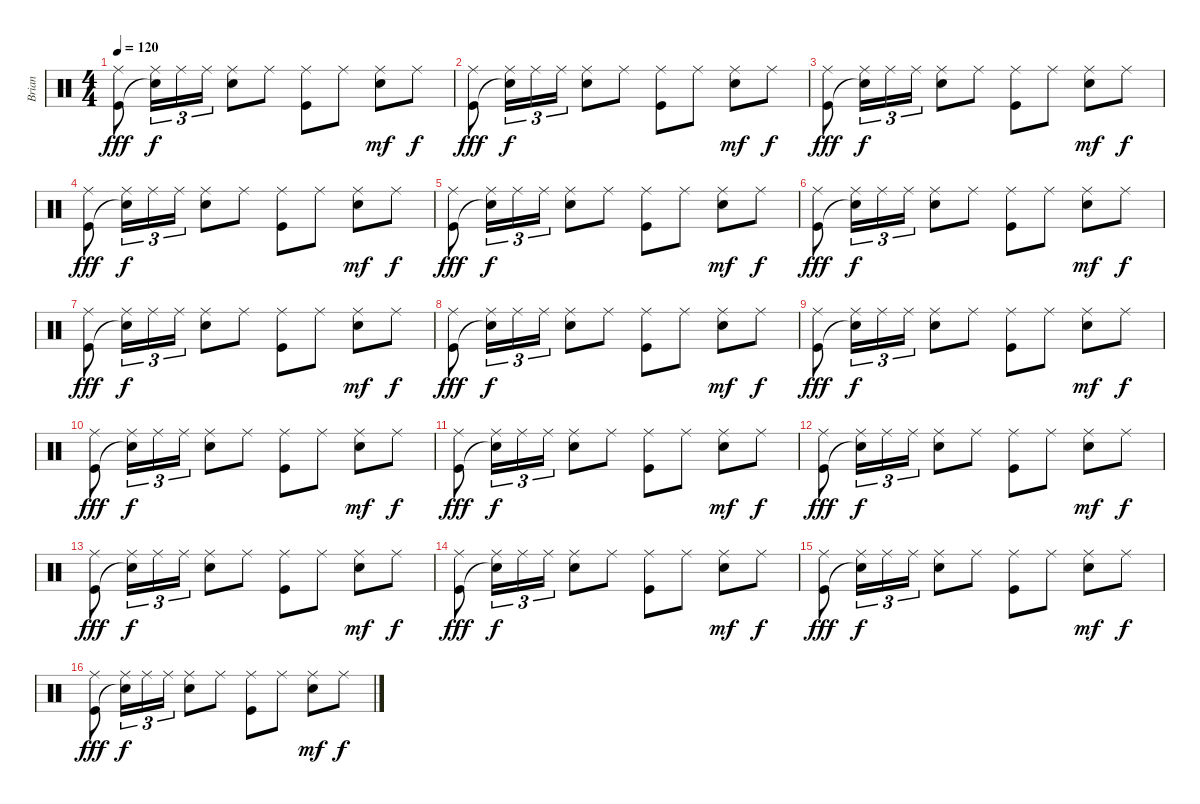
\track ("Brian" "Brian") {instrument percussion}
\staff {score}
\articulation defaults
\ts (4 4)
\tempo 120
\clef neutral
\ks c
("Ride (middle)" "Kick (hit)").8{dy fff} ("Ride (middle)" "Snare (hit)"{t}).16{tu (3 2) dy f} "Ride (middle)".16{tu (3 2)} "Ride (middle)".16{tu (3 2)} ("Ride (middle)" "Snare (hit) 2").8 "Ride (middle)".8 ("Ride (middle)" "Kick (hit)").8 "Ride (middle)".8 ("Ride (middle)" "Snare (hit) 2").8{dy mf} "Ride (middle)".8{dy f} |
("Ride (middle)" "Kick (hit)").8{dy fff} ("Ride (middle)" "Snare (hit)"{t}).16{tu (3 2) dy f} "Ride (middle)".16{tu (3 2)} "Ride (middle)".16{tu (3 2)} ("Ride (middle)" "Snare (hit) 2").8 "Ride (middle)".8 ("Ride (middle)" "Kick (hit)").8 "Ride (middle)".8 ("Ride (middle)" "Snare (hit) 2").8{dy mf} "Ride (middle)".8{dy f} |
("Ride (middle)" "Kick (hit)").8{dy fff} ("Ride (middle)" "Snare (hit)"{t}).16{tu (3 2) dy f} "Ride (middle)".16{tu (3 2)} "Ride (middle)".16{tu (3 2)} ("Ride (middle)" "Snare (hit) 2").8 "Ride (middle)".8 ("Ride (middle)" "Kick (hit)").8 "Ride (middle)".8 ("Ride (middle)" "Snare (hit) 2").8{dy mf} "Ride (middle)".8{dy f} |
("Ride (middle)" "Kick (hit)").8{dy fff} ("Ride (middle)" "Snare (hit)"{t}).16{tu (3 2) dy f} "Ride (middle)".16{tu (3 2)} "Ride (middle)".16{tu (3 2)} ("Ride (middle)" "Snare (hit) 2").8 "Ride (middle)".8 ("Ride (middle)" "Kick (hit)").8 "Ride (middle)".8 ("Ride (middle)" "Snare (hit) 2").8{dy mf} "Ride (middle)".8{dy f} |
("Ride (middle)" "Kick (hit)").8{dy fff} ("Ride (middle)" "Snare (hit)"{t}).16{tu (3 2) dy f} "Ride (middle)".16{tu (3 2)} "Ride (middle)".16{tu (3 2)} ("Ride (middle)" "Snare (hit) 2").8 "Ride (middle)".8 ("Ride (middle)" "Kick (hit)").8 "Ride (middle)".8 ("Ride (middle)" "Snare (hit) 2").8{dy mf} "Ride (middle)".8{dy f} |
("Ride (middle)" "Kick (hit)").8{dy fff} ("Ride (middle)" "Snare (hit)"{t}).16{tu (3 2) dy f} "Ride (middle)".16{tu (3 2)} "Ride (middle)".16{tu (3 2)} ("Ride (middle)" "Snare (hit) 2").8 "Ride (middle)".8 ("Ride (middle)" "Kick (hit)").8 "Ride (middle)".8 ("Ride (middle)" "Snare (hit) 2").8{dy mf} "Ride (middle)".8{dy f} |
("Ride (middle)" "Kick (hit)").8{dy fff} ("Ride (middle)" "Snare (hit)"{t}).16{tu (3 2) dy f} "Ride (middle)".16{tu (3 2)} "Ride (middle)".16{tu (3 2)} ("Ride (middle)" "Snare (hit) 2").8 "Ride (middle)".8 ("Ride (middle)" "Kick (hit)").8 "Ride (middle)".8 ("Ride (middle)" "Snare (hit) 2").8{dy mf} "Ride (middle)".8{dy f} |
("Ride (middle)" "Kick (hit)").8{dy fff} ("Ride (middle)" "Snare (hit)"{t}).16{tu (3 2) dy f} "Ride (middle)".16{tu (3 2)} "Ride (middle)".16{tu (3 2)} ("Ride (middle)" "Snare (hit) 2").8 "Ride (middle)".8 ("Ride (middle)" "Kick (hit)").8 "Ride (middle)".8 ("Ride (middle)" "Snare (hit) 2").8{dy mf} "Ride (middle)".8{dy f} |
("Ride (middle)" "Kick (hit)").8{dy fff} ("Ride (middle)" "Snare (hit)"{t}).16{tu (3 2) dy f} "Ride (middle)".16{tu (3 2)} "Ride (middle)".16{tu (3 2)} ("Ride (middle)" "Snare (hit) 2").8 "Ride (middle)".8 ("Ride (middle)" "Kick (hit)").8 "Ride (middle)".8 ("Ride (middle)" "Snare (hit) 2").8{dy mf} "Ride (middle)".8{dy f} |
("Ride (middle)" "Kick (hit)").8{dy fff} ("Ride (middle)" "Snare (hit)"{t}).16{tu (3 2) dy f} "Ride (middle)".16{tu (3 2)} "Ride (middle)".16{tu (3 2)} ("Ride (middle)" "Snare (hit) 2").8 "Ride (middle)".8 ("Ride (middle)" "Kick (hit)").8 "Ride (middle)".8 ("Ride (middle)" "Snare (hit) 2").8{dy mf} "Ride (middle)".8{dy f} |
("Ride (middle)" "Kick (hit)").8{dy fff} ("Ride (middle)" "Snare (hit)"{t}).16{tu (3 2) dy f} "Ride (middle)".16{tu (3 2)} "Ride (middle)".16{tu (3 2)} ("Ride (middle)" "Snare (hit) 2").8 "Ride (middle)".8 ("Ride (middle)" "Kick (hit)").8 "Ride (middle)".8 ("Ride (middle)" "Snare (hit) 2").8{dy mf} "Ride (middle)".8{dy f} |
("Ride (middle)" "Kick (hit)").8{dy fff} ("Ride (middle)" "Snare (hit)"{t}).16{tu (3 2) dy f} "Ride (middle)".16{tu (3 2)} "Ride (middle)".16{tu (3 2)} ("Ride (middle)" "Snare (hit) 2").8 "Ride (middle)".8 ("Ride (middle)" "Kick (hit)").8 "Ride (middle)".8 ("Ride (middle)" "Snare (hit) 2").8{dy mf} "Ride (middle)".8{dy f} |
("Ride (middle)" "Kick (hit)").8{dy fff} ("Ride (middle)" "Snare (hit)"{t}).16{tu (3 2) dy f} "Ride (middle)".16{tu (3 2)} "Ride (middle)".16{tu (3 2)} ("Ride (middle)" "Snare (hit) 2").8 "Ride (middle)".8 ("Ride (middle)" "Kick (hit)").8 "Ride (middle)".8 ("Ride (middle)" "Snare (hit) 2").8{dy mf} "Ride (middle)".8{dy f} |
("Ride (middle)" "Kick (hit)").8{dy fff} ("Ride (middle)" "Snare (hit)"{t}).16{tu (3 2) dy f} "Ride (middle)".16{tu (3 2)} "Ride (middle)".16{tu (3 2)} ("Ride (middle)" "Snare (hit) 2").8 "Ride (middle)".8 ("Ride (middle)" "Kick (hit)").8 "Ride (middle)".8 ("Ride (middle)" "Snare (hit) 2").8{dy mf} "Ride (middle)".8{dy f} |
("Ride (middle)" "Kick (hit)").8{dy fff} ("Ride (middle)" "Snare (hit)"{t}).16{tu (3 2) dy f} "Ride (middle)".16{tu (3 2)} "Ride (middle)".16{tu (3 2)} ("Ride (middle)" "Snare (hit) 2").8 "Ride (middle)".8 ("Ride (middle)" "Kick (hit)").8 "Ride (middle)".8 ("Ride (middle)" "Snare (hit) 2").8{dy mf} "Ride (middle)".8{dy f} |
("Ride (middle)" "Kick (hit)").8{dy fff} ("Ride (middle)" "Snare (hit)"{t}).16{tu (3 2) dy f} "Ride (middle)".16{tu (3 2)} "Ride (middle)".16{tu (3 2)} ("Ride (middle)" "Snare (hit) 2").8 "Ride (middle)".8 ("Ride (middle)" "Kick (hit)").8 "Ride (middle)".8 ("Ride (middle)" "Snare (hit) 2").8{dy mf} "Ride (middle)".8{dy f}
